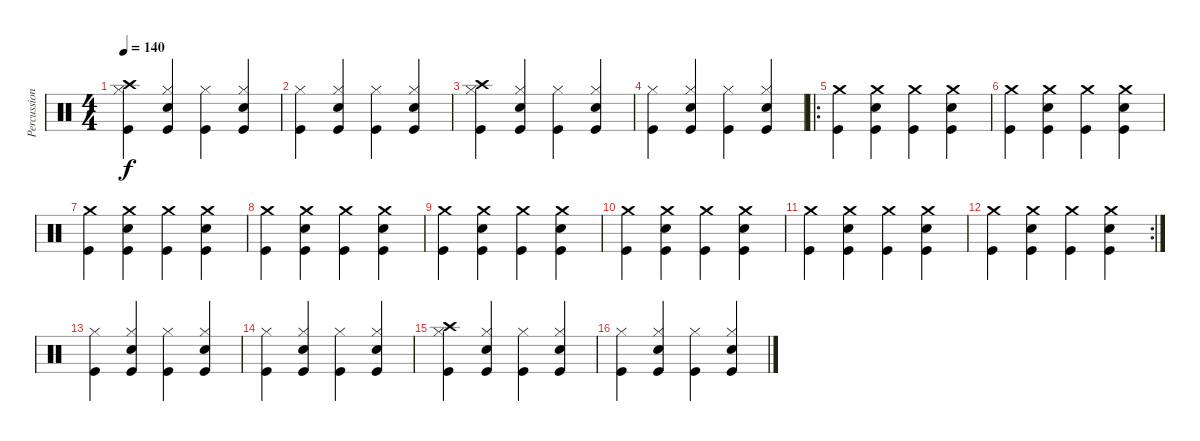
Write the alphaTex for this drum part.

\track ("Percussion" "Percussion") {instrument percussion}
\staff {score}
\articulation defaults
\ts (4 4)
\tempo 140
\clef neutral
\ks c
("Crash high (hit)" "Kick (hit)" "Hi-Hat (closed)").4{dy f} ("Kick (hit)" "Electric Snare (hit)" "Hi-Hat (closed)").4 ("Kick (hit)" "Hi-Hat (closed)").4 ("Kick (hit)" "Electric Snare (hit)" "Hi-Hat (closed)").4 |
("Kick (hit)" "Hi-Hat (closed)").4 ("Kick (hit)" "Electric Snare (hit)" "Hi-Hat (closed)").4 ("Kick (hit)" "Hi-Hat (closed)").4 ("Kick (hit)" "Electric Snare (hit)" "Hi-Hat (closed)").4 |
("Kick (hit)" "Crash high (hit)" "Hi-Hat (closed)").4 ("Kick (hit)" "Electric Snare (hit)" "Hi-Hat (closed)").4 ("Kick (hit)" "Hi-Hat (closed)").4 ("Kick (hit)" "Electric Snare (hit)" "Hi-Hat (closed)").4 |
("Kick (hit)" "Hi-Hat (closed)").4 ("Kick (hit)" "Electric Snare (hit)" "Hi-Hat (closed)").4 ("Kick (hit)" "Hi-Hat (closed)").4 ("Kick (hit)" "Electric Snare (hit)" "Hi-Hat (closed)").4 |
\ro
("Kick (hit)" "Crash medium (hit)").4 ("Kick (hit)" "Electric Snare (hit)" "Crash medium (hit)").4 ("Kick (hit)" "Crash medium (hit)").4 ("Kick (hit)" "Electric Snare (hit)" "Crash medium (hit)").4 |
("Kick (hit)" "Crash medium (hit)").4 ("Kick (hit)" "Electric Snare (hit)" "Crash medium (hit)").4 ("Kick (hit)" "Crash medium (hit)").4 ("Kick (hit)" "Electric Snare (hit)" "Crash medium (hit)").4 |
("Kick (hit)" "Crash medium (hit)").4 ("Kick (hit)" "Electric Snare (hit)" "Crash medium (hit)").4 ("Kick (hit)" "Crash medium (hit)").4 ("Kick (hit)" "Electric Snare (hit)" "Crash medium (hit)").4 |
("Kick (hit)" "Crash medium (hit)").4 ("Kick (hit)" "Electric Snare (hit)" "Crash medium (hit)").4 ("Kick (hit)" "Crash medium (hit)").4 ("Kick (hit)" "Electric Snare (hit)" "Crash medium (hit)").4 |
("Kick (hit)" "Crash medium (hit)").4 ("Kick (hit)" "Electric Snare (hit)" "Crash medium (hit)").4 ("Kick (hit)" "Crash medium (hit)").4 ("Kick (hit)" "Electric Snare (hit)" "Crash medium (hit)").4 |
("Kick (hit)" "Crash medium (hit)").4 ("Kick (hit)" "Electric Snare (hit)" "Crash medium (hit)").4 ("Kick (hit)" "Crash medium (hit)").4 ("Kick (hit)" "Electric Snare (hit)" "Crash medium (hit)").4 |
("Kick (hit)" "Crash medium (hit)").4 ("Kick (hit)" "Electric Snare (hit)" "Crash medium (hit)").4 ("Kick (hit)" "Crash medium (hit)").4 ("Kick (hit)" "Electric Snare (hit)" "Crash medium (hit)").4 |
\rc 2
("Kick (hit)" "Crash medium (hit)").4 ("Kick (hit)" "Electric Snare (hit)" "Crash medium (hit)").4 ("Kick (hit)" "Crash medium (hit)").4 ("Kick (hit)" "Electric Snare (hit)" "Crash medium (hit)").4 |
("Kick (hit)" "Hi-Hat (closed)").4 ("Kick (hit)" "Electric Snare (hit)" "Hi-Hat (closed)").4 ("Kick (hit)" "Hi-Hat (closed)").4 ("Kick (hit)" "Electric Snare (hit)" "Hi-Hat (closed)").4 |
("Kick (hit)" "Hi-Hat (closed)").4 ("Kick (hit)" "Electric Snare (hit)" "Hi-Hat (closed)").4 ("Kick (hit)" "Hi-Hat (closed)").4 ("Kick (hit)" "Electric Snare (hit)" "Hi-Hat (closed)").4 |
("Crash high (hit)" "Kick (hit)" "Hi-Hat (closed)").4 ("Kick (hit)" "Electric Snare (hit)" "Hi-Hat (closed)").4 ("Kick (hit)" "Hi-Hat (closed)").4 ("Kick (hit)" "Electric Snare (hit)" "Hi-Hat (closed)").4 |
("Kick (hit)" "Hi-Hat (closed)").4 ("Kick (hit)" "Electric Snare (hit)" "Hi-Hat (closed)").4 ("Kick (hit)" "Hi-Hat (closed)").4 ("Kick (hit)" "Electric Snare (hit)" "Hi-Hat (closed)").4
